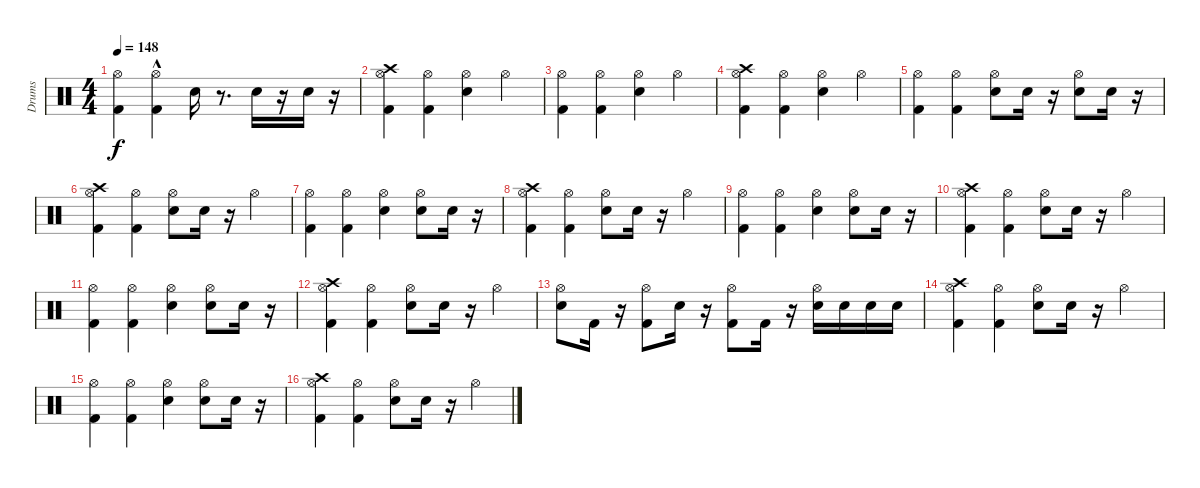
\track ("Drums" "Drums") {instrument percussion}
\staff {score}
\articulation defaults
\ts (4 4)
\tempo 148
\clef neutral
\ks c
("Hi-Hat (open)" "Kick (hit) 2").4{dy f} ("Hi-Hat (open)"{hac} "Kick (hit) 2").4 "Snare (hit) 2".16 r.8{d} "Snare (hit) 2".16 r.16 "Snare (hit) 2".16 r.16 |
("Hi-Hat (open)" "Kick (hit) 2" "Crash high (hit)").4 ("Kick (hit) 2" "Hi-Hat (open)").4 ("Hi-Hat (open)" "Snare (hit) 2").4 "Hi-Hat (open)".4 |
("Hi-Hat (open)" "Kick (hit) 2").4 ("Hi-Hat (open)" "Kick (hit) 2").4 ("Hi-Hat (open)" "Snare (hit) 2").4 "Hi-Hat (open)".4 |
("Crash high (hit)" "Hi-Hat (open)" "Kick (hit) 2").4 ("Hi-Hat (open)" "Kick (hit) 2").4 ("Hi-Hat (open)" "Snare (hit) 2").4 "Hi-Hat (open)".4 |
("Hi-Hat (open)" "Kick (hit) 2").4 ("Hi-Hat (open)" "Kick (hit) 2").4 ("Hi-Hat (open)" "Snare (hit) 2").8 "Snare (hit) 2".16 r.16 ("Hi-Hat (open)" "Snare (hit) 2").8 "Snare (hit) 2".16 r.16 |
("Kick (hit) 2" "Hi-Hat (open)" "Crash high (hit)").4 ("Kick (hit) 2" "Hi-Hat (open)").4 ("Snare (hit) 2" "Hi-Hat (open)").8 "Snare (hit) 2".16 r.16 "Hi-Hat (open)".4 |
("Kick (hit) 2" "Hi-Hat (open)").4 ("Kick (hit) 2" "Hi-Hat (open)").4 ("Snare (hit) 2" "Hi-Hat (open)").4 ("Snare (hit) 2" "Hi-Hat (open)").8 "Snare (hit) 2".16 r.16 |
("Crash high (hit)" "Hi-Hat (open)" "Kick (hit) 2").4 ("Hi-Hat (open)" "Kick (hit) 2").4 ("Hi-Hat (open)" "Snare (hit) 2").8 "Snare (hit) 2".16 r.16 "Hi-Hat (open)".4 |
("Hi-Hat (open)" "Kick (hit) 2").4 ("Hi-Hat (open)" "Kick (hit) 2").4 ("Hi-Hat (open)" "Snare (hit) 2").4 ("Hi-Hat (open)" "Snare (hit) 2").8 "Snare (hit) 2".16 r.16 |
("Hi-Hat (open)" "Crash high (hit)" "Kick (hit) 2").4 ("Hi-Hat (open)" "Kick (hit) 2").4 ("Hi-Hat (open)" "Snare (hit) 2").8 "Snare (hit) 2".16 r.16 "Hi-Hat (open)".4 |
("Hi-Hat (open)" "Kick (hit) 2").4 ("Hi-Hat (open)" "Kick (hit) 2").4 ("Hi-Hat (open)" "Snare (hit) 2").4 ("Hi-Hat (open)" "Snare (hit) 2").8 "Snare (hit) 2".16 r.16 |
("Crash high (hit)" "Hi-Hat (open)" "Kick (hit) 2").4 ("Hi-Hat (open)" "Kick (hit) 2").4 ("Hi-Hat (open)" "Snare (hit) 2").8 "Snare (hit) 2".16 r.16 "Hi-Hat (open)".4 |
("Hi-Hat (open)" "Snare (hit) 2").8 "Kick (hit) 2".16 r.16 ("Hi-Hat (open)" "Kick (hit) 2").8 "Snare (hit) 2".16 r.16 ("Hi-Hat (open)" "Kick (hit) 2").8 "Kick (hit) 2".16 r.16 ("Hi-Hat (open)" "Snare (hit) 2").16 "Snare (hit) 2".16 "Snare (hit) 2".16 "Snare (hit) 2".16 |
("Kick (hit) 2" "Hi-Hat (open)" "Crash high (hit)").4 ("Kick (hit) 2" "Hi-Hat (open)").4 ("Snare (hit) 2" "Hi-Hat (open)").8 "Snare (hit) 2".16 r.16 "Hi-Hat (open)".4 |
("Kick (hit) 2" "Hi-Hat (open)").4 ("Kick (hit) 2" "Hi-Hat (open)").4 ("Snare (hit) 2" "Hi-Hat (open)").4 ("Snare (hit) 2" "Hi-Hat (open)").8 "Snare (hit) 2".16 r.16 |
("Crash high (hit)" "Hi-Hat (open)" "Kick (hit) 2").4 ("Hi-Hat (open)" "Kick (hit) 2").4 ("Hi-Hat (open)" "Snare (hit) 2").8 "Snare (hit) 2".16 r.16 "Hi-Hat (open)".4
